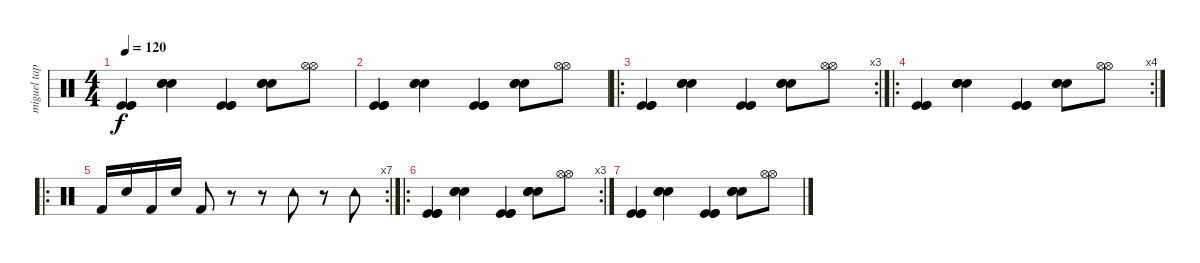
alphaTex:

\track ("miguel tapia" "miguel tap") {instrument percussion}
\staff {score}
\articulation defaults
\ts (4 4)
\tempo 120
\clef neutral
\ks c
("Kick (hit)" "Kick (hit)" "Kick (hit)").4{dy f} ("Snare (hit) 2" "Snare (hit) 2" "Snare (hit) 2").4 ("Kick (hit)" "Kick (hit)" "Kick (hit)").4 ("Snare (hit) 2" "Snare (hit) 2" "Snare (hit) 2").8 ("Hi-Hat (open)" "Hi-Hat (open)").8 |
("Kick (hit)" "Kick (hit)" "Kick (hit)").4 ("Snare (hit) 2" "Snare (hit) 2" "Snare (hit) 2").4 ("Kick (hit)" "Kick (hit)" "Kick (hit)").4 ("Snare (hit) 2" "Snare (hit) 2" "Snare (hit) 2").8 ("Hi-Hat (open)" "Hi-Hat (open)").8 |
\ro
\rc 3
("Kick (hit)" "Kick (hit)" "Kick (hit)").4 ("Snare (hit) 2" "Snare (hit) 2" "Snare (hit) 2").4 ("Kick (hit)" "Kick (hit)" "Kick (hit)").4 ("Snare (hit) 2" "Snare (hit) 2" "Snare (hit) 2").8 ("Hi-Hat (open)" "Hi-Hat (open)").8 |
\ro
\rc 4
("Kick (hit)" "Kick (hit)" "Kick (hit)").4 ("Snare (hit) 2" "Snare (hit) 2" "Snare (hit) 2").4 ("Kick (hit)" "Kick (hit)" "Kick (hit)").4 ("Snare (hit) 2" "Snare (hit) 2" "Snare (hit) 2").8 ("Hi-Hat (open)" "Hi-Hat (open)").8 |
\ro
\rc 7 "Kick (hit) 2".16 "Snare (hit) 2".16 "Kick (hit) 2".16 "Snare (hit) 2".16 "Kick (hit) 2".8
r.8 r.8 "Tambourine (hit)".8 r.8 "Tambourine (hit)".8 |
\ro
\rc 3
("Kick (hit)" "Kick (hit)" "Kick (hit)").4 ("Snare (hit) 2" "Snare (hit) 2" "Snare (hit) 2").4 ("Kick (hit)" "Kick (hit)" "Kick (hit)").4 ("Snare (hit) 2" "Snare (hit) 2" "Snare (hit) 2").8 ("Hi-Hat (open)" "Hi-Hat (open)").8 |
("Kick (hit)" "Kick (hit)" "Kick (hit)").4 ("Snare (hit) 2" "Snare (hit) 2" "Snare (hit) 2").4 ("Kick (hit)" "Kick (hit)" "Kick (hit)").4 ("Snare (hit) 2" "Snare (hit) 2" "Snare (hit) 2").8 ("Hi-Hat (open)" "Hi-Hat (open)").8
